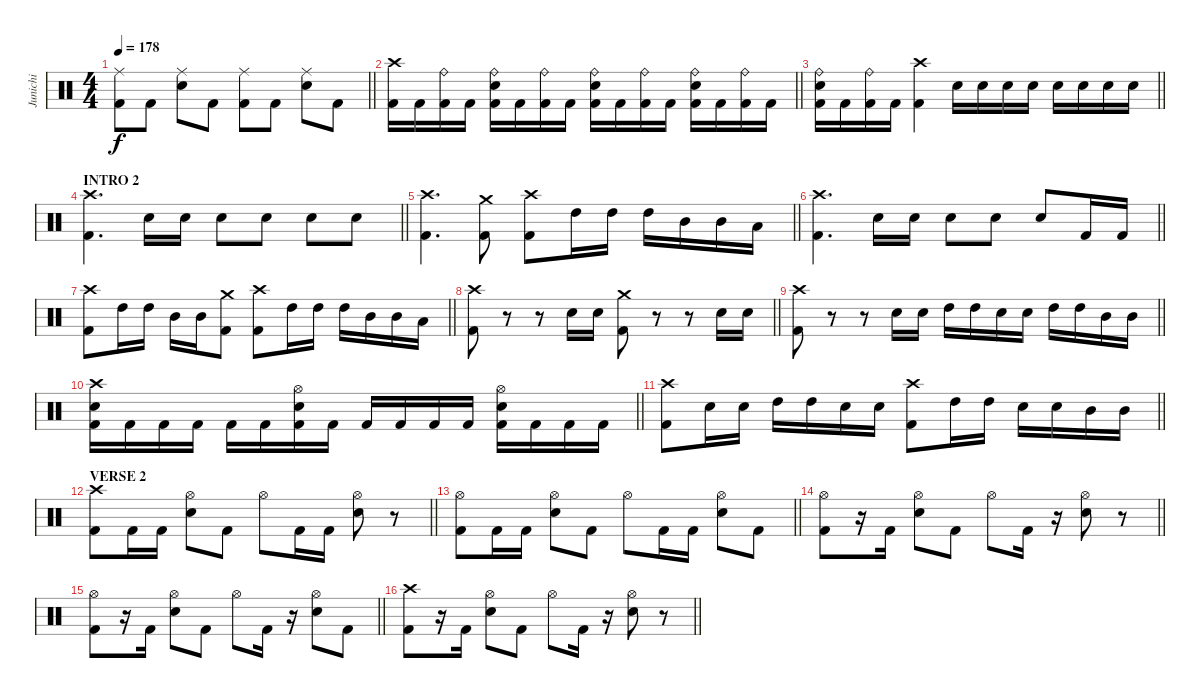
\track ("Junichi" "Junichi") {instrument percussion}
\staff {score}
\articulation defaults
\ts (4 4)
\tempo 178
\clef neutral
\barLineRight lightlight
\ks c
("Ride (middle)" "Kick (hit) 2").8{dy f} "Kick (hit) 2".8 ("Ride (middle)" "Snare (hit) 2").8 "Kick (hit) 2".8 ("Ride (middle)" "Kick (hit) 2").8 "Kick (hit) 2".8 ("Ride (middle)" "Snare (hit) 2").8 "Kick (hit) 2".8 |
\barLineRight lightlight
("Crash high (hit)" "Kick (hit) 2").16 "Kick (hit) 2".16 ("Ride (bell)" "Kick (hit) 2").16 "Kick (hit) 2".16 ("Ride (bell)" "Snare (hit) 2" "Kick (hit) 2").16 "Kick (hit) 2".16 ("Ride (bell)" "Kick (hit) 2").16 "Kick (hit) 2".16 ("Ride (bell)" "Snare (hit) 2" "Kick (hit) 2").16 "Kick (hit) 2".16 ("Ride (bell)" "Kick (hit) 2").16 "Kick (hit) 2".16 ("Ride (bell)" "Snare (hit) 2" "Kick (hit) 2").16 "Kick (hit) 2".16 ("Ride (bell)" "Kick (hit) 2").16 "Kick (hit) 2".16 |
\barLineRight lightlight
("Ride (bell)" "Snare (hit) 2" "Kick (hit) 2").16 "Kick (hit) 2".16 ("Ride (bell)" "Kick (hit) 2").16 "Kick (hit) 2".16 ("Crash high (hit)" "Kick (hit) 2").4 "Snare (hit) 2".16 "Snare (hit) 2".16 "Snare (hit) 2".16 "Snare (hit) 2".16 "Snare (hit) 2".16 "Snare (hit) 2".16 "Snare (hit) 2".16 "Snare (hit) 2".16 |
\section ("" "INTRO 2")
\barLineRight lightlight
("Crash high (hit)" "Kick (hit) 2").4{d} "Snare (hit) 2".16 "Snare (hit) 2".16 "Snare (hit) 2".8 "Snare (hit) 2".8 "Snare (hit) 2".8 "Snare (hit) 2".8 |
\barLineRight lightlight
("Crash high (hit)" "Kick (hit) 2").4{d} ("Crash medium (hit)" "Kick (hit) 2").8 ("Crash high (hit)" "Kick (hit) 2").8 "High Tom (hit)".16 "High Tom (hit)".16 "High Tom (hit)".16 "Mid Tom (hit)".16 "Mid Tom (hit)".16 "Low Tom (hit)".16 |
\barLineRight lightlight
("Crash high (hit)" "Kick (hit) 2").4{d} "Snare (hit) 2".16 "Snare (hit) 2".16 "Snare (hit) 2".8 "Snare (hit) 2".8 "Snare (hit) 2".8 "Kick (hit) 2".16 "Kick (hit) 2".16 |
\barLineRight lightlight
("Crash high (hit)" "Kick (hit) 2").8 "High Tom (hit)".16 "High Tom (hit)".16 "Mid Tom (hit)".16 "Mid Tom (hit)".16 ("Crash medium (hit)" "Kick (hit) 2").8 ("Crash high (hit)" "Kick (hit) 2").8 "High Tom (hit)".16 "High Tom (hit)".16 "High Tom (hit)".16 "Mid Tom (hit)".16 "Mid Tom (hit)".16 "Low Tom (hit)".16 |
\barLineRight lightlight
("Crash high (hit)" "Kick (hit) 2").8 r.8 r.8 "Snare (hit) 2".16 "Snare (hit) 2".16 ("Crash medium (hit)" "Kick (hit) 2").8 r.8 r.8 "Snare (hit) 2".16 "Snare (hit) 2".16 |
\barLineRight lightlight
("Crash high (hit)" "Kick (hit) 2").8 r.8 r.8 "Snare (hit) 2".16 "Snare (hit) 2".16 "High Tom (hit)".16 "High Tom (hit)".16 "Snare (hit) 2".16 "Snare (hit) 2".16 "High Tom (hit)".16 "High Tom (hit)".16 "Mid Tom (hit)".16 "Mid Tom (hit)".16 |
\barLineRight lightlight
("Crash high (hit)" "Snare (hit) 2" "Kick (hit) 2").16 "Kick (hit) 2".16 "Kick (hit) 2".16 "Kick (hit) 2".16 "Kick (hit) 2".16 "Kick (hit) 2".16 ("Hi-Hat (open)" "Snare (hit) 2" "Kick (hit) 2").16 "Kick (hit) 2".16 "Kick (hit) 2".16 "Kick (hit) 2".16 "Kick (hit) 2".16 "Kick (hit) 2".16 ("Hi-Hat (open)" "Snare (hit) 2" "Kick (hit) 2").16 "Kick (hit) 2".16 "Kick (hit) 2".16 "Kick (hit) 2".16 |
\barLineRight lightlight
("Crash high (hit)" "Kick (hit) 2").8 "Snare (hit) 2".16 "Snare (hit) 2".16 "High Tom (hit)".16 "High Tom (hit)".16 "Snare (hit) 2".16 "Snare (hit) 2".16 ("Crash high (hit)" "Kick (hit) 2").8 "High Tom (hit)".16 "High Tom (hit)".16 "Snare (hit) 2".16 "Snare (hit) 2".16 "Mid Tom (hit)".16 "Mid Tom (hit)".16 |
\section ("" "VERSE 2")
\barLineRight lightlight
("Crash high (hit)" "Kick (hit) 2").8 "Kick (hit) 2".16 "Kick (hit) 2".16 ("Hi-Hat (open)" "Snare (hit) 2").8 "Kick (hit) 2".8 "Hi-Hat (open)".8 "Kick (hit) 2".16 "Kick (hit) 2".16 ("Hi-Hat (open)" "Snare (hit) 2").8 r.8 |
\barLineRight lightlight
("Hi-Hat (open)" "Kick (hit) 2").8 "Kick (hit) 2".16 "Kick (hit) 2".16 ("Hi-Hat (open)" "Snare (hit) 2").8 "Kick (hit) 2".8 "Hi-Hat (open)".8 "Kick (hit) 2".16 "Kick (hit) 2".16 ("Hi-Hat (open)" "Snare (hit) 2").8 "Kick (hit) 2".8 |
\barLineRight lightlight
("Hi-Hat (open)" "Kick (hit) 2").8 r.16 "Kick (hit) 2".16 ("Hi-Hat (open)" "Snare (hit) 2").8 "Kick (hit) 2".8 "Hi-Hat (open)".8 "Kick (hit) 2".16 r.16 ("Hi-Hat (open)" "Snare (hit) 2").8 r.8 |
\barLineRight lightlight
("Hi-Hat (open)" "Kick (hit) 2").8 r.16 "Kick (hit) 2".16 ("Hi-Hat (open)" "Snare (hit) 2").8 "Kick (hit) 2".8 "Hi-Hat (open)".8 "Kick (hit) 2".16 r.16 ("Hi-Hat (open)" "Snare (hit) 2").8 "Kick (hit) 2".8 |
\barLineRight lightlight
("Crash high (hit)" "Kick (hit) 2").8 r.16 "Kick (hit) 2".16 ("Hi-Hat (open)" "Snare (hit) 2").8 "Kick (hit) 2".8 "Hi-Hat (open)".8 "Kick (hit) 2".16 r.16 ("Hi-Hat (open)" "Snare (hit) 2").8 r.8
